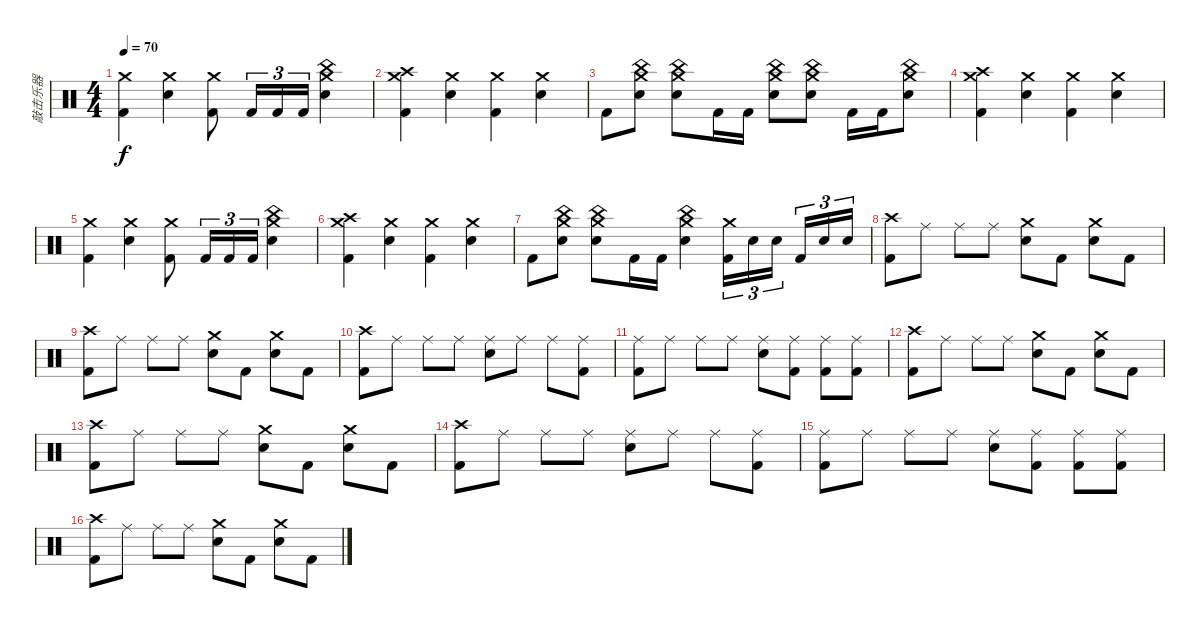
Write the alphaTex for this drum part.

\track ("敲击乐器" "敲击乐器") {instrument percussion}
\staff {score}
\articulation defaults
\ts (4 4)
\tempo 70
\clef neutral
\ks c
("Crash medium (hit)" "Kick (hit) 2").4{dy f} ("Crash medium (hit)" "Snare (hit) 2").4 ("Kick (hit) 2" "Crash medium (hit)").8 "Kick (hit) 2".16{tu (3 2)} "Kick (hit) 2".16{tu (3 2)} "Kick (hit) 2".16{tu (3 2)} ("China (hit)" "Crash medium (hit)" "Snare (hit) 2").4 |
("Crash medium (hit)" "Crash high (hit)" "Kick (hit) 2").4 ("Crash medium (hit)" "Snare (hit) 2").4 ("Crash medium (hit)" "Kick (hit) 2").4 ("Crash medium (hit)" "Snare (hit) 2").4 |
"Kick (hit) 2".8 ("Crash medium (hit)" "China (hit)" "Snare (hit) 2").8 ("Crash medium (hit)" "China (hit)" "Snare (hit) 2").8 "Kick (hit) 2".16 "Kick (hit) 2".16 ("Crash medium (hit)" "China (hit)" "Snare (hit) 2").8 ("Crash medium (hit)" "China (hit)" "Snare (hit) 2").8 "Kick (hit) 2".16 "Kick (hit) 2".16 ("Crash medium (hit)" "China (hit)" "Snare (hit) 2").8 |
("Crash medium (hit)" "Crash high (hit)" "Kick (hit) 2").4 ("Crash medium (hit)" "Snare (hit) 2").4 ("Crash medium (hit)" "Kick (hit) 2").4 ("Crash medium (hit)" "Snare (hit) 2").4 |
("Crash medium (hit)" "Kick (hit) 2").4 ("Crash medium (hit)" "Snare (hit) 2").4 ("Kick (hit) 2" "Crash medium (hit)").8 "Kick (hit) 2".16{tu (3 2)} "Kick (hit) 2".16{tu (3 2)} "Kick (hit) 2".16{tu (3 2)} ("China (hit)" "Crash medium (hit)" "Snare (hit) 2").4 |
("Crash medium (hit)" "Crash high (hit)" "Kick (hit) 2").4 ("Crash medium (hit)" "Snare (hit) 2").4 ("Crash medium (hit)" "Kick (hit) 2").4 ("Crash medium (hit)" "Snare (hit) 2").4 |
"Kick (hit) 2".8 ("Crash medium (hit)" "China (hit)" "Snare (hit) 2").8 ("Crash medium (hit)" "China (hit)" "Snare (hit) 2").8 "Kick (hit) 2".16 "Kick (hit) 2".16 ("Crash medium (hit)" "China (hit)" "Snare (hit) 2").4 ("Crash medium (hit)" "Kick (hit) 2").16{tu (3 2)} "Snare (hit) 2".16{tu (3 2)} "Snare (hit) 2".16{tu (3 2) beam splitsecondary} "Kick (hit) 2".16{tu (3 2)} "Snare (hit) 2".16{tu (3 2)} "Snare (hit) 2".16{tu (3 2)} |
("Kick (hit) 2" "Crash high (hit)").8 "Ride (middle)".8 "Ride (middle)".8 "Ride (middle)".8 ("Snare (hit) 2" "Crash medium (hit)").8 "Kick (hit) 2".8 ("Snare (hit) 2" "Crash medium (hit)").8 "Kick (hit) 2".8 |
("Kick (hit) 2" "Crash high (hit)").8 "Ride (middle)".8 "Ride (middle)".8 "Ride (middle)".8 ("Snare (hit) 2" "Crash medium (hit)").8 "Kick (hit) 2".8 ("Snare (hit) 2" "Crash medium (hit)").8 "Kick (hit) 2".8 |
("Kick (hit) 2" "Crash high (hit)").8 "Ride (middle)".8 "Ride (middle)".8 "Ride (middle)".8 ("Snare (hit) 2" "Ride (middle)").8 "Ride (middle)".8 "Ride (middle)".8 ("Kick (hit) 2" "Ride (middle)").8 |
("Kick (hit) 2" "Ride (middle)").8 "Ride (middle)".8 "Ride (middle)".8 "Ride (middle)".8 ("Snare (hit) 2" "Ride (middle)").8 ("Kick (hit) 2" "Ride (middle)").8 ("Ride (middle)" "Kick (hit) 2").8 ("Kick (hit) 2" "Ride (middle)").8 |
("Kick (hit) 2" "Crash high (hit)").8 "Ride (middle)".8 "Ride (middle)".8 "Ride (middle)".8 ("Snare (hit) 2" "Crash medium (hit)").8 "Kick (hit) 2".8 ("Snare (hit) 2" "Crash medium (hit)").8 "Kick (hit) 2".8 |
("Kick (hit) 2" "Crash high (hit)").8 "Ride (middle)".8 "Ride (middle)".8 "Ride (middle)".8 ("Snare (hit) 2" "Crash medium (hit)").8 "Kick (hit) 2".8 ("Snare (hit) 2" "Crash medium (hit)").8 "Kick (hit) 2".8 |
("Kick (hit) 2" "Crash high (hit)").8 "Ride (middle)".8 "Ride (middle)".8 "Ride (middle)".8 ("Snare (hit) 2" "Ride (middle)").8 "Ride (middle)".8 "Ride (middle)".8 ("Kick (hit) 2" "Ride (middle)").8 |
("Kick (hit) 2" "Ride (middle)").8 "Ride (middle)".8 "Ride (middle)".8 "Ride (middle)".8 ("Snare (hit) 2" "Ride (middle)").8 ("Kick (hit) 2" "Ride (middle)").8 ("Ride (middle)" "Kick (hit) 2").8 ("Kick (hit) 2" "Ride (middle)").8 |
("Kick (hit) 2" "Crash high (hit)").8 "Ride (middle)".8 "Ride (middle)".8 "Ride (middle)".8 ("Snare (hit) 2" "Crash medium (hit)").8 "Kick (hit) 2".8 ("Snare (hit) 2" "Crash medium (hit)").8 "Kick (hit) 2".8
